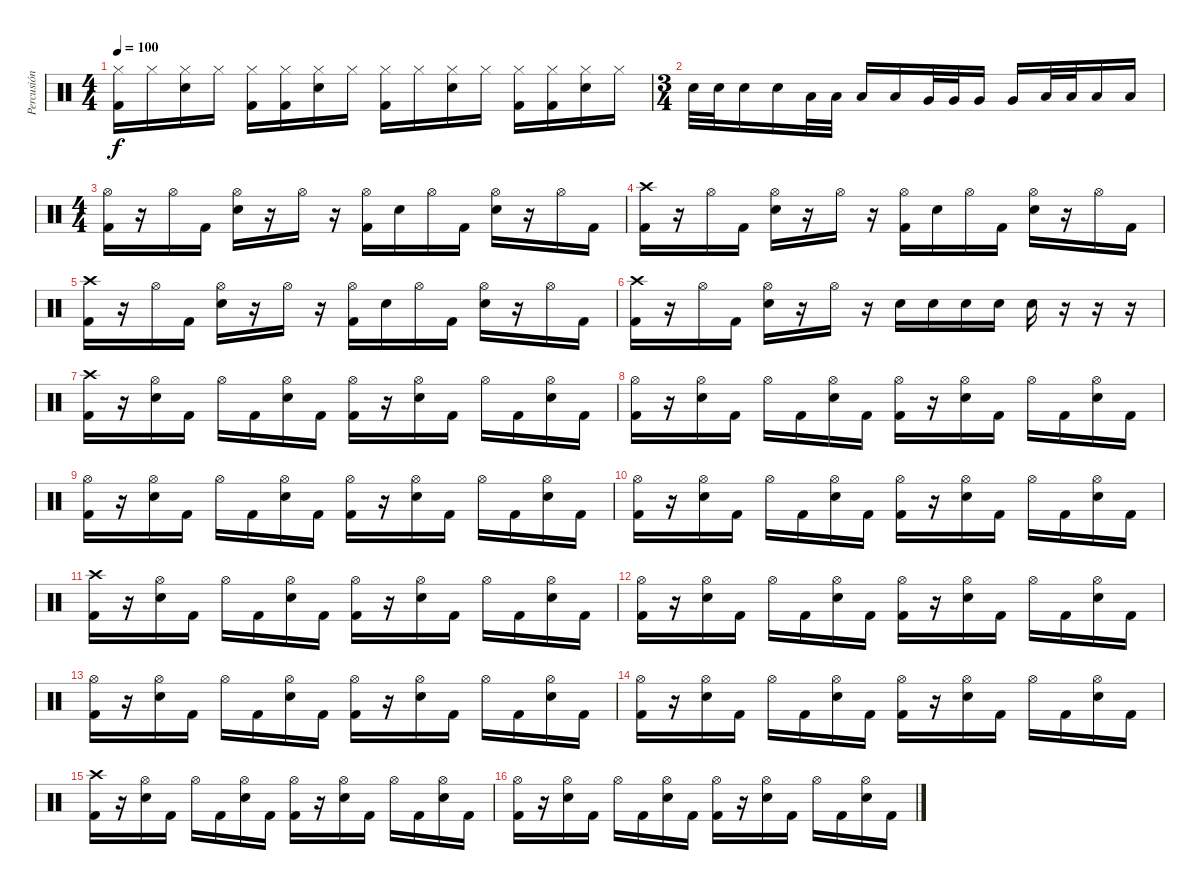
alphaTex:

\track ("Percusión" "Percusión") {instrument percussion}
\staff {score}
\articulation defaults
\ts (4 4)
\tempo 100
\clef neutral
\ks c
("Hi-Hat (closed)" "Kick (hit) 2").16{dy f} "Hi-Hat (closed)".16 ("Hi-Hat (closed)" "Electric Snare (hit)").16 "Hi-Hat (closed)".16 ("Hi-Hat (closed)" "Kick (hit) 2").16 ("Hi-Hat (closed)" "Kick (hit) 2").16 ("Hi-Hat (closed)" "Electric Snare (hit)").16 "Hi-Hat (closed)".16 ("Hi-Hat (closed)" "Kick (hit) 2").16 "Hi-Hat (closed)".16 ("Hi-Hat (closed)" "Electric Snare (hit)").16 "Hi-Hat (closed)".16 ("Hi-Hat (closed)" "Kick (hit) 2").16 ("Hi-Hat (closed)" "Kick (hit) 2").16 ("Hi-Hat (closed)" "Electric Snare (hit)").16 "Hi-Hat (closed)".16 |
\ts (3 4)
"Electric Snare (hit)".32 "Electric Snare (hit)".32 "Electric Snare (hit)".16 "Electric Snare (hit)".16 "Low Tom (hit)".32 "Low Tom (hit)".32 "Low Tom (hit)".16 "Low Tom (hit)".16 "Very Low Tom (hit)".32 "Very Low Tom (hit)".32 "Very Low Tom (hit)".16 "Very Low Tom (hit)".16 "Low Floor Tom (hit)".32 "Low Floor Tom (hit)".32 "Low Floor Tom (hit)".16 "Low Floor Tom (hit)".16 |
\ts (4 4)
("Hi-Hat (open)" "Kick (hit) 2").16 r.16 "Hi-Hat (open)".16 "Kick (hit) 2".16 ("Hi-Hat (open)" "Electric Snare (hit)").16 r.16 "Hi-Hat (open)".16 r.16 ("Hi-Hat (open)" "Kick (hit) 2").16 "Electric Snare (hit)".16 "Hi-Hat (open)".16 "Kick (hit) 2".16 ("Hi-Hat (open)" "Electric Snare (hit)").16 r.16 "Hi-Hat (open)".16 "Kick (hit) 2".16 |
("Crash high (hit)" "Kick (hit) 2").16 r.16 "Hi-Hat (open)".16 "Kick (hit) 2".16 ("Hi-Hat (open)" "Electric Snare (hit)").16 r.16 "Hi-Hat (open)".16 r.16 ("Hi-Hat (open)" "Kick (hit) 2").16 "Electric Snare (hit)".16 "Hi-Hat (open)".16 "Kick (hit) 2".16 ("Hi-Hat (open)" "Electric Snare (hit)").16 r.16 "Hi-Hat (open)".16 "Kick (hit) 2".16 |
("Crash high (hit)" "Kick (hit) 2").16 r.16 "Hi-Hat (open)".16 "Kick (hit) 2".16 ("Hi-Hat (open)" "Electric Snare (hit)").16 r.16 "Hi-Hat (open)".16 r.16 ("Hi-Hat (open)" "Kick (hit) 2").16 "Electric Snare (hit)".16 "Hi-Hat (open)".16 "Kick (hit) 2".16 ("Hi-Hat (open)" "Electric Snare (hit)").16 r.16 "Hi-Hat (open)".16 "Kick (hit) 2".16 |
("Crash high (hit)" "Kick (hit) 2").16 r.16 "Hi-Hat (open)".16 "Kick (hit) 2".16 ("Hi-Hat (open)" "Electric Snare (hit)").16 r.16 "Hi-Hat (open)".16 r.16 "Electric Snare (hit)".16 "Electric Snare (hit)".16 "Electric Snare (hit)".16 "Electric Snare (hit)".16 "Electric Snare (hit)".16 r.16 r.16 r.16 |
("Crash high (hit)" "Kick (hit) 2").16 r.16 ("Hi-Hat (open)" "Electric Snare (hit)").16 "Kick (hit) 2".16 "Hi-Hat (open)".16 "Kick (hit) 2".16 ("Hi-Hat (open)" "Electric Snare (hit)").16 "Kick (hit) 2".16 ("Hi-Hat (open)" "Kick (hit) 2").16 r.16 ("Hi-Hat (open)" "Electric Snare (hit)").16 "Kick (hit) 2".16 "Hi-Hat (open)".16 "Kick (hit) 2".16 ("Hi-Hat (open)" "Electric Snare (hit)").16 "Kick (hit) 2".16 |
("Hi-Hat (open)" "Kick (hit) 2").16 r.16 ("Hi-Hat (open)" "Electric Snare (hit)").16 "Kick (hit) 2".16 "Hi-Hat (open)".16 "Kick (hit) 2".16 ("Hi-Hat (open)" "Electric Snare (hit)").16 "Kick (hit) 2".16 ("Hi-Hat (open)" "Kick (hit) 2").16 r.16 ("Hi-Hat (open)" "Electric Snare (hit)").16 "Kick (hit) 2".16 "Hi-Hat (open)".16 "Kick (hit) 2".16 ("Hi-Hat (open)" "Electric Snare (hit)").16 "Kick (hit) 2".16 |
("Hi-Hat (open)" "Kick (hit) 2").16 r.16 ("Hi-Hat (open)" "Electric Snare (hit)").16 "Kick (hit) 2".16 "Hi-Hat (open)".16 "Kick (hit) 2".16 ("Hi-Hat (open)" "Electric Snare (hit)").16 "Kick (hit) 2".16 ("Hi-Hat (open)" "Kick (hit) 2").16 r.16 ("Hi-Hat (open)" "Electric Snare (hit)").16 "Kick (hit) 2".16 "Hi-Hat (open)".16 "Kick (hit) 2".16 ("Hi-Hat (open)" "Electric Snare (hit)").16 "Kick (hit) 2".16 |
("Hi-Hat (open)" "Kick (hit) 2").16 r.16 ("Hi-Hat (open)" "Electric Snare (hit)").16 "Kick (hit) 2".16 "Hi-Hat (open)".16 "Kick (hit) 2".16 ("Hi-Hat (open)" "Electric Snare (hit)").16 "Kick (hit) 2".16 ("Hi-Hat (open)" "Kick (hit) 2").16 r.16 ("Hi-Hat (open)" "Electric Snare (hit)").16 "Kick (hit) 2".16 "Hi-Hat (open)".16 "Kick (hit) 2".16 ("Hi-Hat (open)" "Electric Snare (hit)").16 "Kick (hit) 2".16 |
("Crash high (hit)" "Kick (hit) 2").16 r.16 ("Hi-Hat (open)" "Electric Snare (hit)").16 "Kick (hit) 2".16 "Hi-Hat (open)".16 "Kick (hit) 2".16 ("Hi-Hat (open)" "Electric Snare (hit)").16 "Kick (hit) 2".16 ("Hi-Hat (open)" "Kick (hit) 2").16 r.16 ("Hi-Hat (open)" "Electric Snare (hit)").16 "Kick (hit) 2".16 "Hi-Hat (open)".16 "Kick (hit) 2".16 ("Hi-Hat (open)" "Electric Snare (hit)").16 "Kick (hit) 2".16 |
("Hi-Hat (open)" "Kick (hit) 2").16 r.16 ("Hi-Hat (open)" "Electric Snare (hit)").16 "Kick (hit) 2".16 "Hi-Hat (open)".16 "Kick (hit) 2".16 ("Hi-Hat (open)" "Electric Snare (hit)").16 "Kick (hit) 2".16 ("Hi-Hat (open)" "Kick (hit) 2").16 r.16 ("Hi-Hat (open)" "Electric Snare (hit)").16 "Kick (hit) 2".16 "Hi-Hat (open)".16 "Kick (hit) 2".16 ("Hi-Hat (open)" "Electric Snare (hit)").16 "Kick (hit) 2".16 |
("Hi-Hat (open)" "Kick (hit) 2").16 r.16 ("Hi-Hat (open)" "Electric Snare (hit)").16 "Kick (hit) 2".16 "Hi-Hat (open)".16 "Kick (hit) 2".16 ("Hi-Hat (open)" "Electric Snare (hit)").16 "Kick (hit) 2".16 ("Hi-Hat (open)" "Kick (hit) 2").16 r.16 ("Hi-Hat (open)" "Electric Snare (hit)").16 "Kick (hit) 2".16 "Hi-Hat (open)".16 "Kick (hit) 2".16 ("Hi-Hat (open)" "Electric Snare (hit)").16 "Kick (hit) 2".16 |
("Hi-Hat (open)" "Kick (hit) 2").16 r.16 ("Hi-Hat (open)" "Electric Snare (hit)").16 "Kick (hit) 2".16 "Hi-Hat (open)".16 "Kick (hit) 2".16 ("Hi-Hat (open)" "Electric Snare (hit)").16 "Kick (hit) 2".16 ("Hi-Hat (open)" "Kick (hit) 2").16 r.16 ("Hi-Hat (open)" "Electric Snare (hit)").16 "Kick (hit) 2".16 "Hi-Hat (open)".16 "Kick (hit) 2".16 ("Hi-Hat (open)" "Electric Snare (hit)").16 "Kick (hit) 2".16 |
("Crash high (hit)" "Kick (hit) 2").16 r.16 ("Hi-Hat (open)" "Electric Snare (hit)").16 "Kick (hit) 2".16 "Hi-Hat (open)".16 "Kick (hit) 2".16 ("Hi-Hat (open)" "Electric Snare (hit)").16 "Kick (hit) 2".16 ("Hi-Hat (open)" "Kick (hit) 2").16 r.16 ("Hi-Hat (open)" "Electric Snare (hit)").16 "Kick (hit) 2".16 "Hi-Hat (open)".16 "Kick (hit) 2".16 ("Hi-Hat (open)" "Electric Snare (hit)").16 "Kick (hit) 2".16 |
("Hi-Hat (open)" "Kick (hit) 2").16 r.16 ("Hi-Hat (open)" "Electric Snare (hit)").16 "Kick (hit) 2".16 "Hi-Hat (open)".16 "Kick (hit) 2".16 ("Hi-Hat (open)" "Electric Snare (hit)").16 "Kick (hit) 2".16 ("Hi-Hat (open)" "Kick (hit) 2").16 r.16 ("Hi-Hat (open)" "Electric Snare (hit)").16 "Kick (hit) 2".16 "Hi-Hat (open)".16 "Kick (hit) 2".16 ("Hi-Hat (open)" "Electric Snare (hit)").16 "Kick (hit) 2".16
